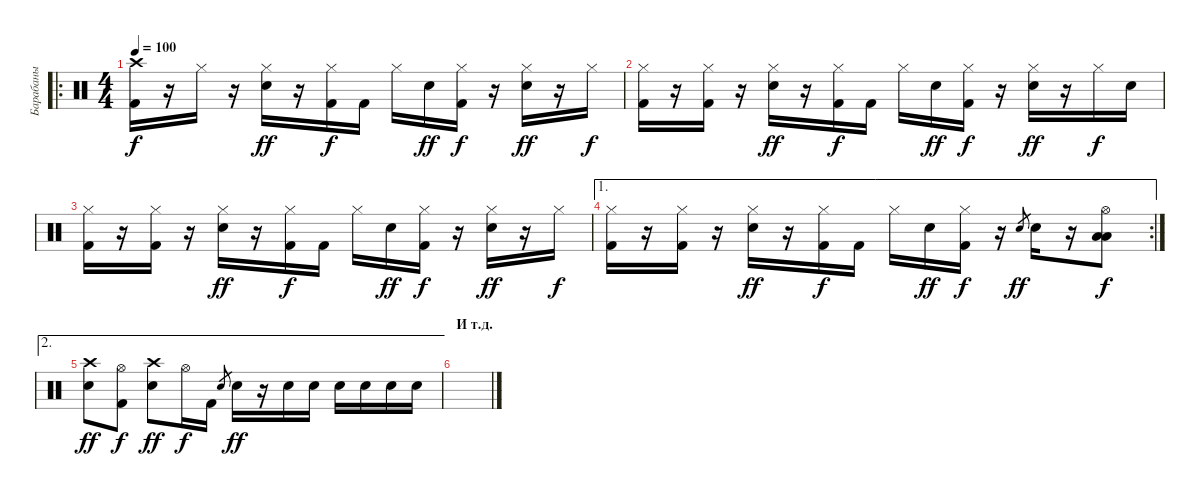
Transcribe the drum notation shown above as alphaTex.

\track ("Барабаны" "Барабаны") {instrument percussion}
\staff {score}
\articulation defaults
\ro
\ts (4 4)
\tempo 100
\clef neutral
\ks c
("Crash high (hit)" "Kick (hit) 2").16{dy f} r.16 "Hi-Hat (closed)".16 r.16 ("Hi-Hat (closed)" "Electric Snare (hit)").16{dy ff} r.16 ("Hi-Hat (closed)" "Kick (hit) 2").16{dy f} "Kick (hit) 2".16 "Hi-Hat (closed)".16 "Electric Snare (hit)".16{dy ff} ("Hi-Hat (closed)" "Kick (hit) 2").16{dy f} r.16 ("Hi-Hat (closed)" "Electric Snare (hit)").16{dy ff} r.16 "Hi-Hat (closed)".16{dy f} |
("Hi-Hat (closed)" "Kick (hit) 2").16 r.16 ("Hi-Hat (closed)" "Kick (hit) 2").16 r.16 ("Hi-Hat (closed)" "Electric Snare (hit)").16{dy ff} r.16 ("Hi-Hat (closed)" "Kick (hit) 2").16{dy f} "Kick (hit) 2".16 "Hi-Hat (closed)".16 "Electric Snare (hit)".16{dy ff} ("Hi-Hat (closed)" "Kick (hit) 2").16{dy f} r.16 ("Hi-Hat (closed)" "Electric Snare (hit)").16{dy ff} r.16 "Hi-Hat (closed)".16{dy f} "Electric Snare (hit)".16 |
("Hi-Hat (closed)" "Kick (hit) 2").16 r.16 ("Hi-Hat (closed)" "Kick (hit) 2").16 r.16 ("Hi-Hat (closed)" "Electric Snare (hit)").16{dy ff} r.16 ("Hi-Hat (closed)" "Kick (hit) 2").16{dy f} "Kick (hit) 2".16 "Hi-Hat (closed)".16 "Electric Snare (hit)".16{dy ff} ("Hi-Hat (closed)" "Kick (hit) 2").16{dy f} r.16 ("Hi-Hat (closed)" "Electric Snare (hit)").16{dy ff} r.16 "Hi-Hat (closed)".16{dy f} |
\ae 1
\rc 2
("Hi-Hat (closed)" "Kick (hit) 2").16 r.16 ("Hi-Hat (closed)" "Kick (hit) 2").16 r.16 ("Hi-Hat (closed)" "Electric Snare (hit)").16{dy ff} r.16 ("Hi-Hat (closed)" "Kick (hit) 2").16{dy f} "Kick (hit) 2".16 "Hi-Hat (closed)".16 "Electric Snare (hit)".16{dy ff} ("Hi-Hat (closed)" "Kick (hit) 2").16{dy f} r.16 "Electric Snare (hit)".8{gr dy ff} "Electric Snare (hit)".16 r.16 ("Hi-Hat (open)" "Low Tom (hit)" "Low Floor Tom (hit)").8{dy f} |
\ae 2
("Crash high (hit)" "Electric Snare (hit)").8{dy ff} ("Hi-Hat (open)" "Kick (hit) 2").8{dy f} ("Crash high (hit)" "Electric Snare (hit)").8{dy ff} "Hi-Hat (open)".16{dy f} "Kick (hit) 2".16 "Electric Snare (hit)".8{gr} "Electric Snare (hit)".16{dy ff} r.16 "Electric Snare (hit)".16 "Electric Snare (hit)".16 "Electric Snare (hit)".16 "Electric Snare (hit)".16 "Electric Snare (hit)".16 "Electric Snare (hit)".16 |
\section ("" "И т.д.")
